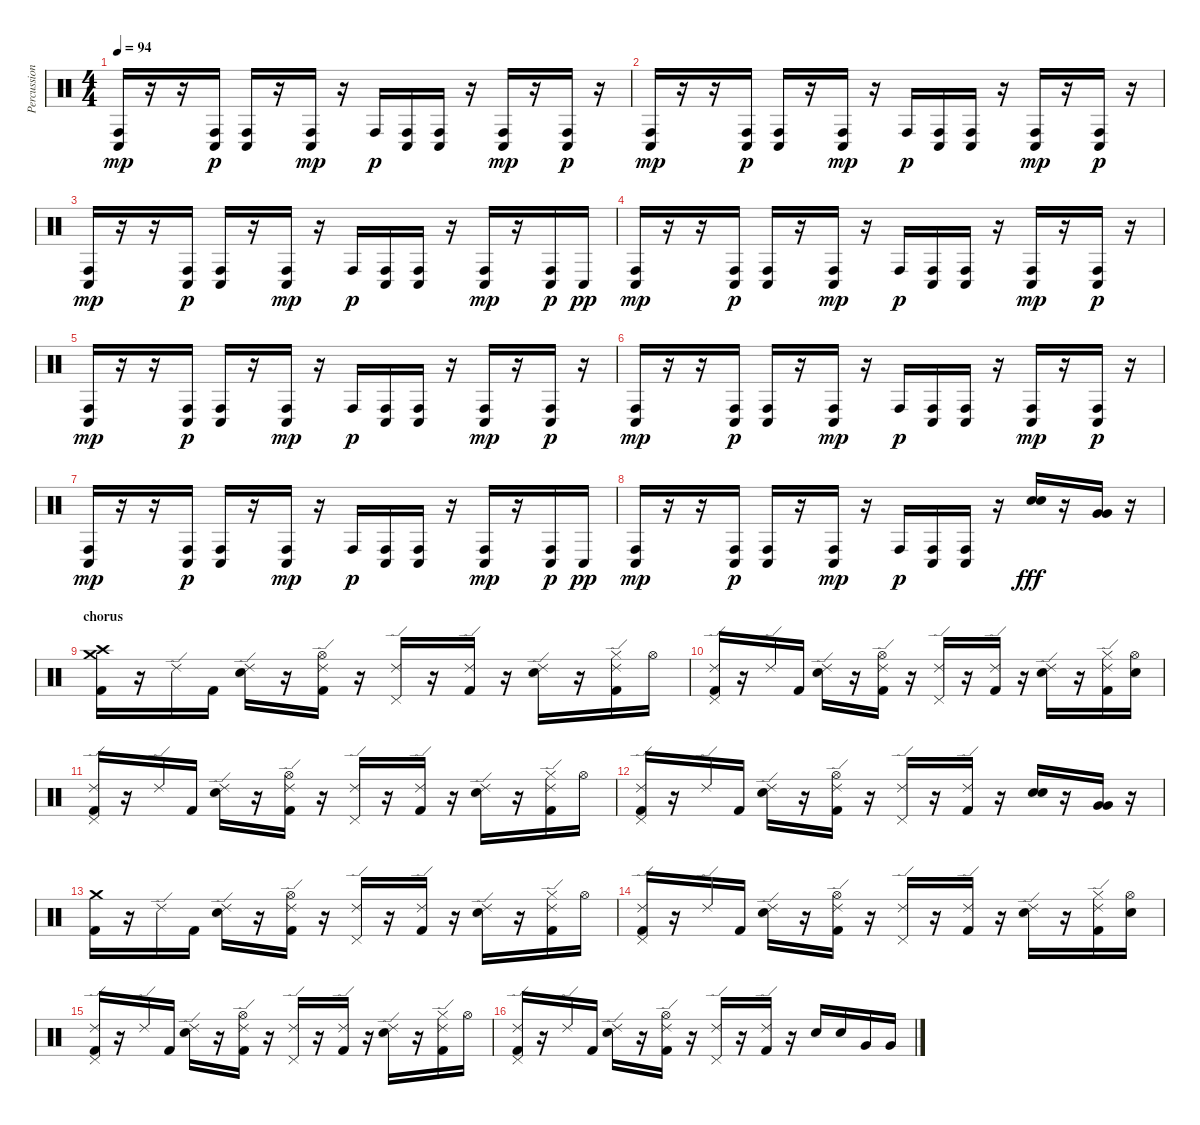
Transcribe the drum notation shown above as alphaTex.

\track ("Percussion" "Percussion") {instrument percussion}
\staff {score}
\articulation defaults
\ts (4 4)
\tempo 94
\clef neutral
\ks c
("Conga low (hit)" "Conga high (hit)").16{dy mp} r.16 r.16 ("Conga low (hit)" "Conga high (hit)").16{dy p} ("Conga low (hit)" "Conga high (hit)").16 r.16 ("Conga low (hit)" "Conga high (hit)").16{dy mp} r.16 "Conga high (hit)".16{dy p} ("Conga low (hit)" "Conga high (hit)").16 ("Conga low (hit)" "Conga high (hit)").16 r.16 ("Conga low (hit)" "Conga high (hit)").16{dy mp} r.16 ("Conga low (hit)" "Conga high (hit)").16{dy p} r.16 |
("Conga low (hit)" "Conga high (hit)").16{dy mp} r.16 r.16 ("Conga low (hit)" "Conga high (hit)").16{dy p} ("Conga low (hit)" "Conga high (hit)").16 r.16 ("Conga low (hit)" "Conga high (hit)").16{dy mp} r.16 "Conga high (hit)".16{dy p} ("Conga low (hit)" "Conga high (hit)").16 ("Conga low (hit)" "Conga high (hit)").16 r.16 ("Conga low (hit)" "Conga high (hit)").16{dy mp} r.16 ("Conga low (hit)" "Conga high (hit)").16{dy p} r.16 |
("Conga low (hit)" "Conga high (hit)").16{dy mp} r.16 r.16 ("Conga low (hit)" "Conga high (hit)").16{dy p} ("Conga low (hit)" "Conga high (hit)").16 r.16 ("Conga low (hit)" "Conga high (hit)").16{dy mp} r.16 "Conga high (hit)".16{dy p} ("Conga low (hit)" "Conga high (hit)").16 ("Conga low (hit)" "Conga high (hit)").16 r.16 ("Conga low (hit)" "Conga high (hit)").16{dy mp} r.16 ("Conga low (hit)" "Conga high (hit)").16{dy p} "Conga low (hit)".16{dy pp} |
("Conga low (hit)" "Conga high (hit)").16{dy mp} r.16 r.16 ("Conga low (hit)" "Conga high (hit)").16{dy p} ("Conga low (hit)" "Conga high (hit)").16 r.16 ("Conga low (hit)" "Conga high (hit)").16{dy mp} r.16 "Conga high (hit)".16{dy p} ("Conga low (hit)" "Conga high (hit)").16 ("Conga low (hit)" "Conga high (hit)").16 r.16 ("Conga low (hit)" "Conga high (hit)").16{dy mp} r.16 ("Conga low (hit)" "Conga high (hit)").16{dy p} r.16 |
("Conga low (hit)" "Conga high (hit)").16{dy mp} r.16 r.16 ("Conga low (hit)" "Conga high (hit)").16{dy p} ("Conga low (hit)" "Conga high (hit)").16 r.16 ("Conga low (hit)" "Conga high (hit)").16{dy mp} r.16 "Conga high (hit)".16{dy p} ("Conga low (hit)" "Conga high (hit)").16 ("Conga low (hit)" "Conga high (hit)").16 r.16 ("Conga low (hit)" "Conga high (hit)").16{dy mp} r.16 ("Conga low (hit)" "Conga high (hit)").16{dy p} r.16 |
("Conga low (hit)" "Conga high (hit)").16{dy mp} r.16 r.16 ("Conga low (hit)" "Conga high (hit)").16{dy p} ("Conga low (hit)" "Conga high (hit)").16 r.16 ("Conga low (hit)" "Conga high (hit)").16{dy mp} r.16 "Conga high (hit)".16{dy p} ("Conga low (hit)" "Conga high (hit)").16 ("Conga low (hit)" "Conga high (hit)").16 r.16 ("Conga low (hit)" "Conga high (hit)").16{dy mp} r.16 ("Conga low (hit)" "Conga high (hit)").16{dy p} r.16 |
("Conga low (hit)" "Conga high (hit)").16{dy mp} r.16 r.16 ("Conga low (hit)" "Conga high (hit)").16{dy p} ("Conga low (hit)" "Conga high (hit)").16 r.16 ("Conga low (hit)" "Conga high (hit)").16{dy mp} r.16 "Conga high (hit)".16{dy p} ("Conga low (hit)" "Conga high (hit)").16 ("Conga low (hit)" "Conga high (hit)").16 r.16 ("Conga low (hit)" "Conga high (hit)").16{dy mp} r.16 ("Conga low (hit)" "Conga high (hit)").16{dy p} "Conga low (hit)".16{dy pp} |
("Conga low (hit)" "Conga high (hit)").16{dy mp} r.16 r.16 ("Conga low (hit)" "Conga high (hit)").16{dy p} ("Conga low (hit)" "Conga high (hit)").16 r.16 ("Conga low (hit)" "Conga high (hit)").16{dy mp} r.16 "Conga high (hit)".16{dy p} ("Conga low (hit)" "Conga high (hit)").16 ("Conga low (hit)" "Conga high (hit)").16 r.16 ("Electric Snare (hit)" "Electric Snare (hit)").16{dy fff} r.16 ("Very Low Tom (hit)" "Very Low Tom (hit)").16 r.16 |
\section ("" "chorus")
("Crash medium (hit)" "Crash high (hit)" "Kick (hit) 2").16 r.16 "Ride (edge) 2".16 "Kick (hit) 2".16 ("Ride (edge) 2" "Electric Snare (hit)").16 r.16 ("Ride (edge) 2" "Hi-Hat (open)" "Kick (hit) 2").16 r.16 ("Ride (edge) 2" "Pedal Hi-Hat (hit)").16 r.16 ("Ride (edge) 2" "Kick (hit) 2").16 r.16 ("Ride (edge) 2" "Electric Snare (hit)").16 r.16 ("Ride (edge) 2" "Hi-Hat (closed)" "Kick (hit) 2").16 "Hi-Hat (open)".16 |
("Ride (edge) 2" "Pedal Hi-Hat (hit)" "Kick (hit) 2").16 r.16 "Ride (edge) 2".16 "Kick (hit) 2".16 ("Ride (edge) 2" "Electric Snare (hit)").16 r.16 ("Ride (edge) 2" "Hi-Hat (open)" "Kick (hit) 2").16 r.16 ("Ride (edge) 2" "Pedal Hi-Hat (hit)").16 r.16 ("Ride (edge) 2" "Kick (hit) 2").16 r.16 ("Ride (edge) 2" "Electric Snare (hit)").16 r.16 ("Ride (edge) 2" "Hi-Hat (closed)" "Kick (hit) 2").16 ("Hi-Hat (open)" "Electric Snare (hit)").16 |
("Ride (edge) 2" "Pedal Hi-Hat (hit)" "Kick (hit) 2").16 r.16 "Ride (edge) 2".16 "Kick (hit) 2".16 ("Ride (edge) 2" "Electric Snare (hit)").16 r.16 ("Ride (edge) 2" "Hi-Hat (open)" "Kick (hit) 2").16 r.16 ("Ride (edge) 2" "Pedal Hi-Hat (hit)").16 r.16 ("Ride (edge) 2" "Kick (hit) 2").16 r.16 ("Ride (edge) 2" "Electric Snare (hit)").16 r.16 ("Ride (edge) 2" "Hi-Hat (closed)" "Kick (hit) 2").16 "Hi-Hat (open)".16 |
("Ride (edge) 2" "Pedal Hi-Hat (hit)" "Kick (hit) 2").16 r.16 "Ride (edge) 2".16 "Kick (hit) 2".16 ("Ride (edge) 2" "Electric Snare (hit)").16 r.16 ("Ride (edge) 2" "Hi-Hat (open)" "Kick (hit) 2").16 r.16 ("Ride (edge) 2" "Pedal Hi-Hat (hit)").16 r.16 ("Ride (edge) 2" "Kick (hit) 2").16 r.16 ("Electric Snare (hit)" "Electric Snare (hit)").16 r.16 ("Very Low Tom (hit)" "Very Low Tom (hit)").16 r.16 |
("Crash medium (hit)" "Kick (hit) 2").16 r.16 "Ride (edge) 2".16 "Kick (hit) 2".16 ("Ride (edge) 2" "Electric Snare (hit)").16 r.16 ("Ride (edge) 2" "Hi-Hat (open)" "Kick (hit) 2").16 r.16 ("Ride (edge) 2" "Pedal Hi-Hat (hit)").16 r.16 ("Ride (edge) 2" "Kick (hit) 2").16 r.16 ("Ride (edge) 2" "Electric Snare (hit)").16 r.16 ("Ride (edge) 2" "Hi-Hat (closed)" "Kick (hit) 2").16 "Hi-Hat (open)".16 |
("Ride (edge) 2" "Pedal Hi-Hat (hit)" "Kick (hit) 2").16 r.16 "Ride (edge) 2".16 "Kick (hit) 2".16 ("Ride (edge) 2" "Electric Snare (hit)").16 r.16 ("Ride (edge) 2" "Hi-Hat (open)" "Kick (hit) 2").16 r.16 ("Ride (edge) 2" "Pedal Hi-Hat (hit)").16 r.16 ("Ride (edge) 2" "Kick (hit) 2").16 r.16 ("Ride (edge) 2" "Electric Snare (hit)").16 r.16 ("Ride (edge) 2" "Hi-Hat (closed)" "Kick (hit) 2").16 ("Hi-Hat (open)" "Electric Snare (hit)").16 |
("Ride (edge) 2" "Pedal Hi-Hat (hit)" "Kick (hit) 2").16 r.16 "Ride (edge) 2".16 "Kick (hit) 2".16 ("Ride (edge) 2" "Electric Snare (hit)").16 r.16 ("Ride (edge) 2" "Hi-Hat (open)" "Kick (hit) 2").16 r.16 ("Ride (edge) 2" "Pedal Hi-Hat (hit)").16 r.16 ("Ride (edge) 2" "Kick (hit) 2").16 r.16 ("Ride (edge) 2" "Electric Snare (hit)").16 r.16 ("Ride (edge) 2" "Hi-Hat (closed)" "Kick (hit) 2").16 "Hi-Hat (open)".16 |
("Ride (edge) 2" "Pedal Hi-Hat (hit)" "Kick (hit) 2").16 r.16 "Ride (edge) 2".16 "Kick (hit) 2".16 ("Ride (edge) 2" "Electric Snare (hit)").16 r.16 ("Ride (edge) 2" "Hi-Hat (open)" "Kick (hit) 2").16 r.16 ("Ride (edge) 2" "Pedal Hi-Hat (hit)").16 r.16 ("Ride (edge) 2" "Kick (hit) 2").16 r.16 "Electric Snare (hit)".16 "Electric Snare (hit)".16 "Very Low Tom (hit)".16 "Very Low Tom (hit)".16
